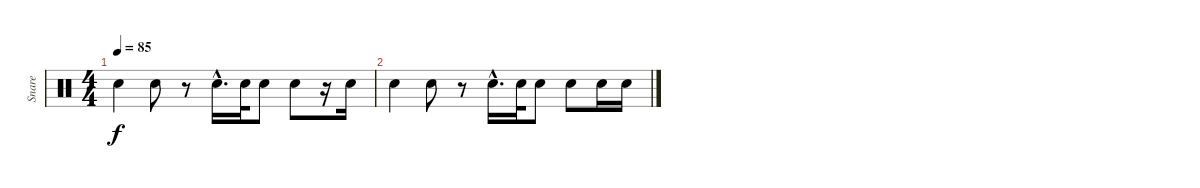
\track ("Snare" "Snare") {instrument percussion}
\staff {score}
\articulation defaults
\ts (4 4)
\tempo 85
\clef neutral
\ks c "Electric Snare (hit)".4{dy f volume 5} "Electric Snare (hit)".8
r.8 "Electric Snare (hit)"{hac}.16{d} "Electric Snare (hit)".32 "Electric Snare (hit)".8 "Electric Snare (hit)".8 r.16 "Electric Snare (hit)".16 |
"Electric Snare (hit)".4{volume 0} "Electric Snare (hit)".8 r.8 "Electric Snare (hit)"{hac}.16{d} "Electric Snare (hit)".32 "Electric Snare (hit)".8 "Electric Snare (hit)".8 "Electric Snare (hit)".16 "Electric Snare (hit)".16
